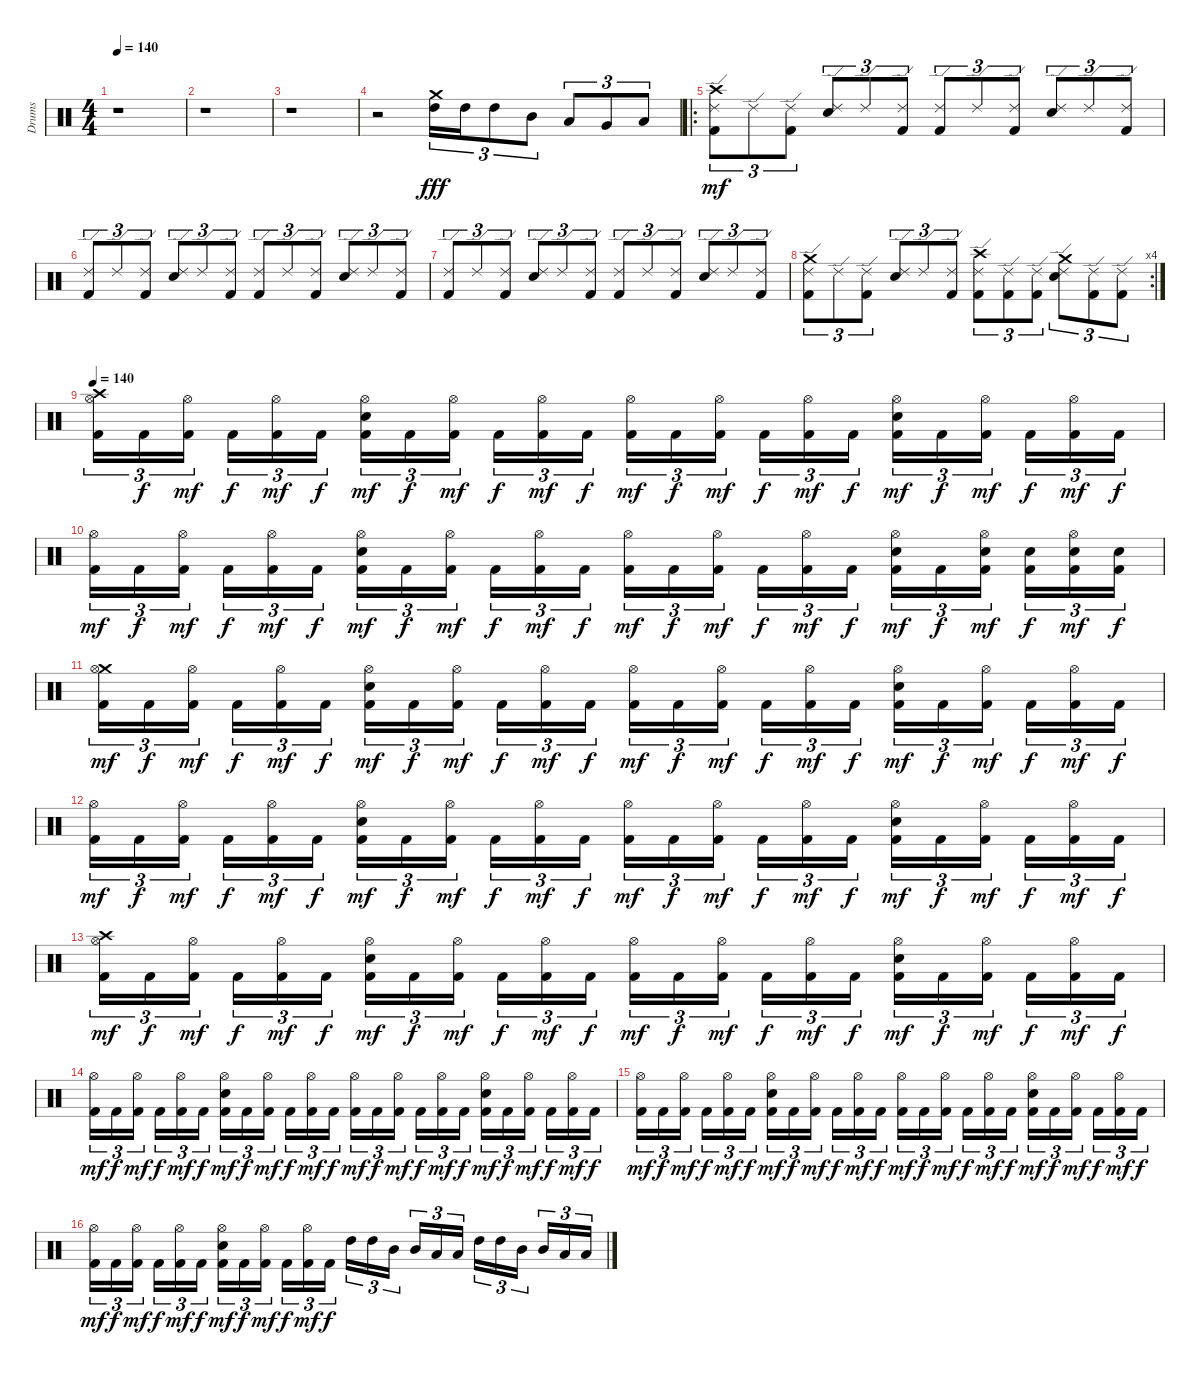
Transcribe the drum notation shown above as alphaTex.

\track ("Drums" "Drums") {instrument percussion}
\staff {score}
\articulation defaults
\ts (4 4)
\tempo 140
\clef neutral
\ks c
r.1{dy f} |
r.1 |
r.1 |
r.2 ("Crash medium (hit)" "High Tom (hit)").16{tu (3 2) dy fff} "High Tom (hit)".16{tu (3 2)} "High Tom (hit)".8{tu (3 2)} "Mid Tom (hit)".8{tu (3 2)} "Low Tom (hit)".8{tu (3 2)} "Very Low Tom (hit)".8{tu (3 2)} "Low Floor Tom (hit)".8{tu (3 2)} |
\ro
("Crash high (hit)" "Ride (edge) 2" "Kick (hit) 2").8{tu (3 2) dy mf} "Ride (edge) 2".8{tu (3 2)} ("Ride (edge) 2" "Kick (hit) 2").8{tu (3 2)} ("Ride (edge) 2" "Electric Snare (hit)").8{tu (3 2)} "Ride (edge) 2".8{tu (3 2)} ("Ride (edge) 2" "Kick (hit) 2").8{tu (3 2)} ("Ride (edge) 2" "Kick (hit) 2").8{tu (3 2)} "Ride (edge) 2".8{tu (3 2)} ("Ride (edge) 2" "Kick (hit) 2").8{tu (3 2)} ("Ride (edge) 2" "Electric Snare (hit)").8{tu (3 2)} "Ride (edge) 2".8{tu (3 2)} ("Ride (edge) 2" "Kick (hit) 2").8{tu (3 2)} |
("Ride (edge) 2" "Kick (hit) 2").8{tu (3 2)} "Ride (edge) 2".8{tu (3 2)} ("Ride (edge) 2" "Kick (hit) 2").8{tu (3 2)} ("Ride (edge) 2" "Electric Snare (hit)").8{tu (3 2)} "Ride (edge) 2".8{tu (3 2)} ("Ride (edge) 2" "Kick (hit) 2").8{tu (3 2)} ("Ride (edge) 2" "Kick (hit) 2").8{tu (3 2)} "Ride (edge) 2".8{tu (3 2)} ("Ride (edge) 2" "Kick (hit) 2").8{tu (3 2)} ("Ride (edge) 2" "Electric Snare (hit)").8{tu (3 2)} "Ride (edge) 2".8{tu (3 2)} ("Ride (edge) 2" "Kick (hit) 2").8{tu (3 2)} |
("Ride (edge) 2" "Kick (hit) 2").8{tu (3 2)} "Ride (edge) 2".8{tu (3 2)} ("Ride (edge) 2" "Kick (hit) 2").8{tu (3 2)} ("Ride (edge) 2" "Electric Snare (hit)").8{tu (3 2)} "Ride (edge) 2".8{tu (3 2)} ("Ride (edge) 2" "Kick (hit) 2").8{tu (3 2)} ("Ride (edge) 2" "Kick (hit) 2").8{tu (3 2)} "Ride (edge) 2".8{tu (3 2)} ("Ride (edge) 2" "Kick (hit) 2").8{tu (3 2)} ("Ride (edge) 2" "Electric Snare (hit)").8{tu (3 2)} "Ride (edge) 2".8{tu (3 2)} ("Ride (edge) 2" "Kick (hit) 2").8{tu (3 2)} |
\rc 4
("Crash medium (hit)" "Ride (edge) 2" "Kick (hit) 2").8{tu (3 2)} "Ride (edge) 2".8{tu (3 2)} ("Ride (edge) 2" "Kick (hit) 2").8{tu (3 2)} ("Ride (edge) 2" "Electric Snare (hit)").8{tu (3 2)} "Ride (edge) 2".8{tu (3 2)} ("Ride (edge) 2" "Kick (hit) 2").8{tu (3 2)} ("Crash high (hit)" "Ride (edge) 2" "Kick (hit) 2").8{tu (3 2)} ("Ride (edge) 2" "Kick (hit) 2").8{tu (3 2)} ("Ride (edge) 2" "Kick (hit) 2").8{tu (3 2)} ("Crash medium (hit)" "Ride (edge) 2" "Electric Snare (hit)").8{tu (3 2)} ("Ride (edge) 2" "Kick (hit) 2").8{tu (3 2)} ("Ride (edge) 2" "Kick (hit) 2").8{tu (3 2)} |
\tempo 140
("Crash high (hit)" "Hi-Hat (open)" "Kick (hit) 2").16{tu (3 2)} "Kick (hit) 2".16{tu (3 2) dy f} ("Hi-Hat (open)" "Kick (hit) 2").16{tu (3 2) dy mf} "Kick (hit) 2".16{tu (3 2) dy f} ("Hi-Hat (open)" "Kick (hit) 2").16{tu (3 2) dy mf} "Kick (hit) 2".16{tu (3 2) dy f} ("Hi-Hat (open)" "Electric Snare (hit)" "Kick (hit) 2").16{tu (3 2) dy mf} "Kick (hit) 2".16{tu (3 2) dy f} ("Hi-Hat (open)" "Kick (hit) 2").16{tu (3 2) dy mf} "Kick (hit) 2".16{tu (3 2) dy f} ("Hi-Hat (open)" "Kick (hit) 2").16{tu (3 2) dy mf} "Kick (hit) 2".16{tu (3 2) dy f} ("Hi-Hat (open)" "Kick (hit) 2").16{tu (3 2) dy mf} "Kick (hit) 2".16{tu (3 2) dy f} ("Hi-Hat (open)" "Kick (hit) 2").16{tu (3 2) dy mf} "Kick (hit) 2".16{tu (3 2) dy f} ("Hi-Hat (open)" "Kick (hit) 2").16{tu (3 2) dy mf} "Kick (hit) 2".16{tu (3 2) dy f} ("Hi-Hat (open)" "Electric Snare (hit)" "Kick (hit) 2").16{tu (3 2) dy mf} "Kick (hit) 2".16{tu (3 2) dy f} ("Hi-Hat (open)" "Kick (hit) 2").16{tu (3 2) dy mf} "Kick (hit) 2".16{tu (3 2) dy f} ("Hi-Hat (open)" "Kick (hit) 2").16{tu (3 2) dy mf} "Kick (hit) 2".16{tu (3 2) dy f} |
("Hi-Hat (open)" "Kick (hit) 2").16{tu (3 2) dy mf} "Kick (hit) 2".16{tu (3 2) dy f} ("Hi-Hat (open)" "Kick (hit) 2").16{tu (3 2) dy mf} "Kick (hit) 2".16{tu (3 2) dy f} ("Hi-Hat (open)" "Kick (hit) 2").16{tu (3 2) dy mf} "Kick (hit) 2".16{tu (3 2) dy f} ("Hi-Hat (open)" "Electric Snare (hit)" "Kick (hit) 2").16{tu (3 2) dy mf} "Kick (hit) 2".16{tu (3 2) dy f} ("Hi-Hat (open)" "Kick (hit) 2").16{tu (3 2) dy mf} "Kick (hit) 2".16{tu (3 2) dy f} ("Hi-Hat (open)" "Kick (hit) 2").16{tu (3 2) dy mf} "Kick (hit) 2".16{tu (3 2) dy f} ("Hi-Hat (open)" "Kick (hit) 2").16{tu (3 2) dy mf} "Kick (hit) 2".16{tu (3 2) dy f} ("Hi-Hat (open)" "Kick (hit) 2").16{tu (3 2) dy mf} "Kick (hit) 2".16{tu (3 2) dy f} ("Hi-Hat (open)" "Kick (hit) 2").16{tu (3 2) dy mf} "Kick (hit) 2".16{tu (3 2) dy f} ("Hi-Hat (open)" "Electric Snare (hit)" "Kick (hit) 2").16{tu (3 2) dy mf} "Kick (hit) 2".16{tu (3 2) dy f} ("Hi-Hat (open)" "Electric Snare (hit)" "Kick (hit) 2").16{tu (3 2) dy mf} ("Electric Snare (hit)" "Kick (hit) 2").16{tu (3 2) dy f} ("Hi-Hat (open)" "Electric Snare (hit)" "Kick (hit) 2").16{tu (3 2) dy mf} ("Electric Snare (hit)" "Kick (hit) 2").16{tu (3 2) dy f} |
("Crash medium (hit)" "Hi-Hat (open)" "Kick (hit) 2").16{tu (3 2) dy mf} "Kick (hit) 2".16{tu (3 2) dy f} ("Hi-Hat (open)" "Kick (hit) 2").16{tu (3 2) dy mf} "Kick (hit) 2".16{tu (3 2) dy f} ("Hi-Hat (open)" "Kick (hit) 2").16{tu (3 2) dy mf} "Kick (hit) 2".16{tu (3 2) dy f} ("Hi-Hat (open)" "Electric Snare (hit)" "Kick (hit) 2").16{tu (3 2) dy mf} "Kick (hit) 2".16{tu (3 2) dy f} ("Hi-Hat (open)" "Kick (hit) 2").16{tu (3 2) dy mf} "Kick (hit) 2".16{tu (3 2) dy f} ("Hi-Hat (open)" "Kick (hit) 2").16{tu (3 2) dy mf} "Kick (hit) 2".16{tu (3 2) dy f} ("Hi-Hat (open)" "Kick (hit) 2").16{tu (3 2) dy mf} "Kick (hit) 2".16{tu (3 2) dy f} ("Hi-Hat (open)" "Kick (hit) 2").16{tu (3 2) dy mf} "Kick (hit) 2".16{tu (3 2) dy f} ("Hi-Hat (open)" "Kick (hit) 2").16{tu (3 2) dy mf} "Kick (hit) 2".16{tu (3 2) dy f} ("Hi-Hat (open)" "Electric Snare (hit)" "Kick (hit) 2").16{tu (3 2) dy mf} "Kick (hit) 2".16{tu (3 2) dy f} ("Hi-Hat (open)" "Kick (hit) 2").16{tu (3 2) dy mf} "Kick (hit) 2".16{tu (3 2) dy f} ("Hi-Hat (open)" "Kick (hit) 2").16{tu (3 2) dy mf} "Kick (hit) 2".16{tu (3 2) dy f} |
("Hi-Hat (open)" "Kick (hit) 2").16{tu (3 2) dy mf} "Kick (hit) 2".16{tu (3 2) dy f} ("Hi-Hat (open)" "Kick (hit) 2").16{tu (3 2) dy mf} "Kick (hit) 2".16{tu (3 2) dy f} ("Hi-Hat (open)" "Kick (hit) 2").16{tu (3 2) dy mf} "Kick (hit) 2".16{tu (3 2) dy f} ("Hi-Hat (open)" "Electric Snare (hit)" "Kick (hit) 2").16{tu (3 2) dy mf} "Kick (hit) 2".16{tu (3 2) dy f} ("Hi-Hat (open)" "Kick (hit) 2").16{tu (3 2) dy mf} "Kick (hit) 2".16{tu (3 2) dy f} ("Hi-Hat (open)" "Kick (hit) 2").16{tu (3 2) dy mf} "Kick (hit) 2".16{tu (3 2) dy f} ("Hi-Hat (open)" "Kick (hit) 2").16{tu (3 2) dy mf} "Kick (hit) 2".16{tu (3 2) dy f} ("Hi-Hat (open)" "Kick (hit) 2").16{tu (3 2) dy mf} "Kick (hit) 2".16{tu (3 2) dy f} ("Hi-Hat (open)" "Kick (hit) 2").16{tu (3 2) dy mf} "Kick (hit) 2".16{tu (3 2) dy f} ("Hi-Hat (open)" "Electric Snare (hit)" "Kick (hit) 2").16{tu (3 2) dy mf} "Kick (hit) 2".16{tu (3 2) dy f} ("Hi-Hat (open)" "Kick (hit) 2").16{tu (3 2) dy mf} "Kick (hit) 2".16{tu (3 2) dy f} ("Hi-Hat (open)" "Kick (hit) 2").16{tu (3 2) dy mf} "Kick (hit) 2".16{tu (3 2) dy f} |
("Crash high (hit)" "Hi-Hat (open)" "Kick (hit) 2").16{tu (3 2) dy mf} "Kick (hit) 2".16{tu (3 2) dy f} ("Hi-Hat (open)" "Kick (hit) 2").16{tu (3 2) dy mf} "Kick (hit) 2".16{tu (3 2) dy f} ("Hi-Hat (open)" "Kick (hit) 2").16{tu (3 2) dy mf} "Kick (hit) 2".16{tu (3 2) dy f} ("Hi-Hat (open)" "Electric Snare (hit)" "Kick (hit) 2").16{tu (3 2) dy mf} "Kick (hit) 2".16{tu (3 2) dy f} ("Hi-Hat (open)" "Kick (hit) 2").16{tu (3 2) dy mf} "Kick (hit) 2".16{tu (3 2) dy f} ("Hi-Hat (open)" "Kick (hit) 2").16{tu (3 2) dy mf} "Kick (hit) 2".16{tu (3 2) dy f} ("Hi-Hat (open)" "Kick (hit) 2").16{tu (3 2) dy mf} "Kick (hit) 2".16{tu (3 2) dy f} ("Hi-Hat (open)" "Kick (hit) 2").16{tu (3 2) dy mf} "Kick (hit) 2".16{tu (3 2) dy f} ("Hi-Hat (open)" "Kick (hit) 2").16{tu (3 2) dy mf} "Kick (hit) 2".16{tu (3 2) dy f} ("Hi-Hat (open)" "Electric Snare (hit)" "Kick (hit) 2").16{tu (3 2) dy mf} "Kick (hit) 2".16{tu (3 2) dy f} ("Hi-Hat (open)" "Kick (hit) 2").16{tu (3 2) dy mf} "Kick (hit) 2".16{tu (3 2) dy f} ("Hi-Hat (open)" "Kick (hit) 2").16{tu (3 2) dy mf} "Kick (hit) 2".16{tu (3 2) dy f} |
("Hi-Hat (open)" "Kick (hit) 2").16{tu (3 2) dy mf} "Kick (hit) 2".16{tu (3 2) dy f} ("Hi-Hat (open)" "Kick (hit) 2").16{tu (3 2) dy mf} "Kick (hit) 2".16{tu (3 2) dy f} ("Hi-Hat (open)" "Kick (hit) 2").16{tu (3 2) dy mf} "Kick (hit) 2".16{tu (3 2) dy f} ("Hi-Hat (open)" "Electric Snare (hit)" "Kick (hit) 2").16{tu (3 2) dy mf} "Kick (hit) 2".16{tu (3 2) dy f} ("Hi-Hat (open)" "Kick (hit) 2").16{tu (3 2) dy mf} "Kick (hit) 2".16{tu (3 2) dy f} ("Hi-Hat (open)" "Kick (hit) 2").16{tu (3 2) dy mf} "Kick (hit) 2".16{tu (3 2) dy f} ("Hi-Hat (open)" "Kick (hit) 2").16{tu (3 2) dy mf} "Kick (hit) 2".16{tu (3 2) dy f} ("Hi-Hat (open)" "Kick (hit) 2").16{tu (3 2) dy mf} "Kick (hit) 2".16{tu (3 2) dy f} ("Hi-Hat (open)" "Kick (hit) 2").16{tu (3 2) dy mf} "Kick (hit) 2".16{tu (3 2) dy f} ("Hi-Hat (open)" "Electric Snare (hit)" "Kick (hit) 2").16{tu (3 2) dy mf} "Kick (hit) 2".16{tu (3 2) dy f} ("Hi-Hat (open)" "Kick (hit) 2").16{tu (3 2) dy mf} "Kick (hit) 2".16{tu (3 2) dy f} ("Hi-Hat (open)" "Kick (hit) 2").16{tu (3 2) dy mf} "Kick (hit) 2".16{tu (3 2) dy f} |
("Hi-Hat (open)" "Kick (hit) 2").16{tu (3 2) dy mf} "Kick (hit) 2".16{tu (3 2) dy f} ("Hi-Hat (open)" "Kick (hit) 2").16{tu (3 2) dy mf} "Kick (hit) 2".16{tu (3 2) dy f} ("Hi-Hat (open)" "Kick (hit) 2").16{tu (3 2) dy mf} "Kick (hit) 2".16{tu (3 2) dy f} ("Hi-Hat (open)" "Electric Snare (hit)" "Kick (hit) 2").16{tu (3 2) dy mf} "Kick (hit) 2".16{tu (3 2) dy f} ("Hi-Hat (open)" "Kick (hit) 2").16{tu (3 2) dy mf} "Kick (hit) 2".16{tu (3 2) dy f} ("Hi-Hat (open)" "Kick (hit) 2").16{tu (3 2) dy mf} "Kick (hit) 2".16{tu (3 2) dy f} ("Hi-Hat (open)" "Kick (hit) 2").16{tu (3 2) dy mf} "Kick (hit) 2".16{tu (3 2) dy f} ("Hi-Hat (open)" "Kick (hit) 2").16{tu (3 2) dy mf} "Kick (hit) 2".16{tu (3 2) dy f} ("Hi-Hat (open)" "Kick (hit) 2").16{tu (3 2) dy mf} "Kick (hit) 2".16{tu (3 2) dy f} ("Hi-Hat (open)" "Electric Snare (hit)" "Kick (hit) 2").16{tu (3 2) dy mf} "Kick (hit) 2".16{tu (3 2) dy f} ("Hi-Hat (open)" "Kick (hit) 2").16{tu (3 2) dy mf} "Kick (hit) 2".16{tu (3 2) dy f} ("Hi-Hat (open)" "Kick (hit) 2").16{tu (3 2) dy mf} "Kick (hit) 2".16{tu (3 2) dy f} |
("Hi-Hat (open)" "Kick (hit) 2").16{tu (3 2) dy mf} "Kick (hit) 2".16{tu (3 2) dy f} ("Hi-Hat (open)" "Kick (hit) 2").16{tu (3 2) dy mf} "Kick (hit) 2".16{tu (3 2) dy f} ("Hi-Hat (open)" "Kick (hit) 2").16{tu (3 2) dy mf} "Kick (hit) 2".16{tu (3 2) dy f} ("Hi-Hat (open)" "Electric Snare (hit)" "Kick (hit) 2").16{tu (3 2) dy mf} "Kick (hit) 2".16{tu (3 2) dy f} ("Hi-Hat (open)" "Kick (hit) 2").16{tu (3 2) dy mf} "Kick (hit) 2".16{tu (3 2) dy f} ("Hi-Hat (open)" "Kick (hit) 2").16{tu (3 2) dy mf} "Kick (hit) 2".16{tu (3 2) dy f} "High Tom (hit)".16{tu (3 2)} "High Tom (hit)".16{tu (3 2)} "Mid Tom (hit)".16{tu (3 2)} "Mid Tom (hit)".16{tu (3 2)} "Low Tom (hit)".16{tu (3 2)} "Low Tom (hit)".16{tu (3 2)} "High Tom (hit)".16{tu (3 2)} "High Tom (hit)".16{tu (3 2)} "Mid Tom (hit)".16{tu (3 2)} "Mid Tom (hit)".16{tu (3 2)} "Low Tom (hit)".16{tu (3 2)} "Low Tom (hit)".16{tu (3 2)}
